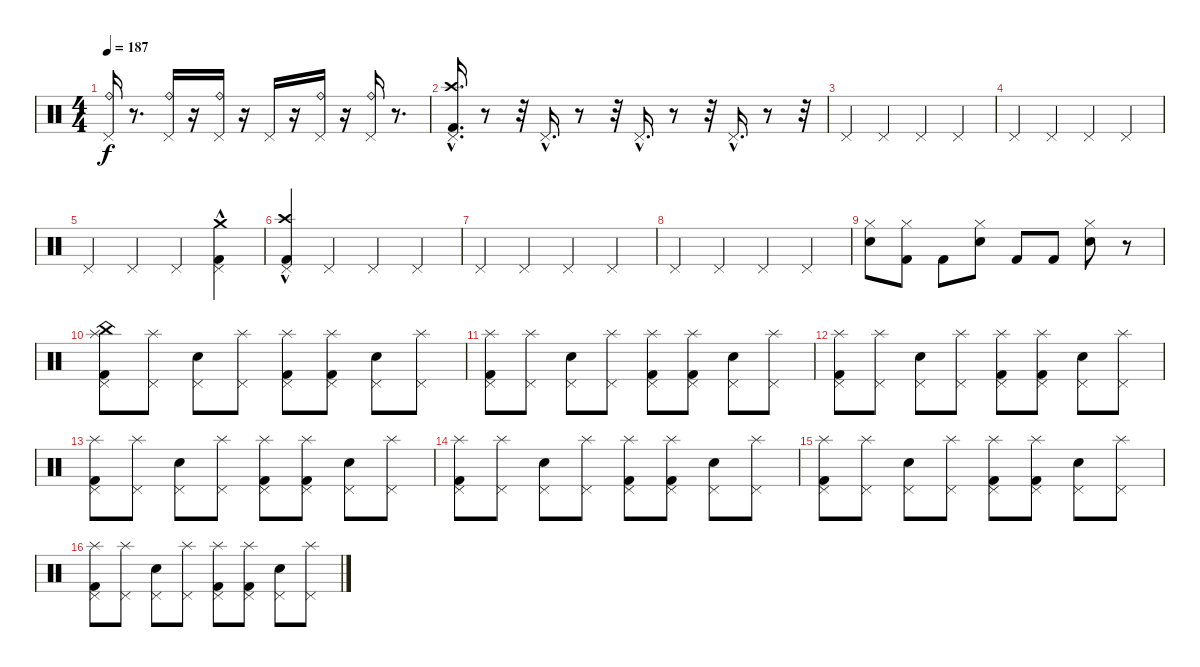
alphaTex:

\track "" {instrument percussion}
\staff {score}
\articulation defaults
\ts (4 4)
\tempo 187
\clef neutral
\ks c
("Pedal Hi-Hat (hit)" "Ride (bell)").16{dy f} r.8{d} ("Pedal Hi-Hat (hit)" "Ride (bell)").16 r.16 ("Pedal Hi-Hat (hit)" "Ride (bell)").16 r.16 "Pedal Hi-Hat (hit)".16 r.16 ("Pedal Hi-Hat (hit)" "Ride (bell)").16 r.16 ("Pedal Hi-Hat (hit)" "Ride (bell)").16 r.8{d} |
("Pedal Hi-Hat (hit)"{hac} "Crash high (hit)"{hac} "Kick (hit) 2"{hac}).16{d} r.8 r.32 "Pedal Hi-Hat (hit)"{hac}.16{d} r.8 r.32 "Pedal Hi-Hat (hit)"{hac}.16{d} r.8 r.32 "Pedal Hi-Hat (hit)"{hac}.16{d} r.8 r.32 |
"Pedal Hi-Hat (hit)".4 "Pedal Hi-Hat (hit)".4 "Pedal Hi-Hat (hit)".4 "Pedal Hi-Hat (hit)".4 |
"Pedal Hi-Hat (hit)".4 "Pedal Hi-Hat (hit)".4 "Pedal Hi-Hat (hit)".4 "Pedal Hi-Hat (hit)".4 |
"Pedal Hi-Hat (hit)".4 "Pedal Hi-Hat (hit)".4 "Pedal Hi-Hat (hit)".4 ("Pedal Hi-Hat (hit)" "Crash medium (hit)"{hac} "Kick (hit) 2"{hac}).4 |
("Pedal Hi-Hat (hit)" "Kick (hit) 2"{hac} "Crash high (hit)"{hac}).4 "Pedal Hi-Hat (hit)".4 "Pedal Hi-Hat (hit)".4 "Pedal Hi-Hat (hit)".4 |
"Pedal Hi-Hat (hit)".4 "Pedal Hi-Hat (hit)".4 "Pedal Hi-Hat (hit)".4 "Pedal Hi-Hat (hit)".4 |
"Pedal Hi-Hat (hit)".4 "Pedal Hi-Hat (hit)".4 "Pedal Hi-Hat (hit)".4 "Pedal Hi-Hat (hit)".4 |
("Hi-Hat (closed)" "Snare (hit) 2").8 ("Hi-Hat (closed)" "Kick (hit) 2").8 "Kick (hit) 2".8 ("Hi-Hat (closed)" "Snare (hit) 2").8 "Kick (hit) 2".8 "Kick (hit) 2".8 ("Hi-Hat (closed)" "Snare (hit) 2").8 r.8 |
("Pedal Hi-Hat (hit)" "Kick (hit) 2" "China (hit)" "Splash (hit)").8 ("Pedal Hi-Hat (hit)" "Splash (hit)").8 ("Pedal Hi-Hat (hit)" "Electric Snare (hit)").8 ("Pedal Hi-Hat (hit)" "Splash (hit)").8 ("Pedal Hi-Hat (hit)" "Kick (hit) 2" "Splash (hit)").8 ("Pedal Hi-Hat (hit)" "Kick (hit) 2" "Splash (hit)").8 ("Pedal Hi-Hat (hit)" "Electric Snare (hit)").8 ("Pedal Hi-Hat (hit)" "Splash (hit)").8 |
("Pedal Hi-Hat (hit)" "Kick (hit) 2" "Splash (hit)").8 ("Pedal Hi-Hat (hit)" "Splash (hit)").8 ("Pedal Hi-Hat (hit)" "Electric Snare (hit)").8 ("Pedal Hi-Hat (hit)" "Splash (hit)").8 ("Pedal Hi-Hat (hit)" "Kick (hit) 2" "Splash (hit)").8 ("Pedal Hi-Hat (hit)" "Kick (hit) 2" "Splash (hit)").8 ("Pedal Hi-Hat (hit)" "Electric Snare (hit)").8 ("Pedal Hi-Hat (hit)" "Splash (hit)").8 |
("Pedal Hi-Hat (hit)" "Kick (hit) 2" "Splash (hit)").8 ("Pedal Hi-Hat (hit)" "Splash (hit)").8 ("Pedal Hi-Hat (hit)" "Electric Snare (hit)").8 ("Pedal Hi-Hat (hit)" "Splash (hit)").8 ("Pedal Hi-Hat (hit)" "Kick (hit) 2" "Splash (hit)").8 ("Pedal Hi-Hat (hit)" "Kick (hit) 2" "Splash (hit)").8 ("Pedal Hi-Hat (hit)" "Electric Snare (hit)").8 ("Pedal Hi-Hat (hit)" "Splash (hit)").8 |
("Pedal Hi-Hat (hit)" "Kick (hit) 2" "Splash (hit)").8 ("Pedal Hi-Hat (hit)" "Splash (hit)").8 ("Pedal Hi-Hat (hit)" "Electric Snare (hit)").8 ("Pedal Hi-Hat (hit)" "Splash (hit)").8 ("Pedal Hi-Hat (hit)" "Kick (hit) 2" "Splash (hit)").8 ("Pedal Hi-Hat (hit)" "Kick (hit) 2" "Splash (hit)").8 ("Pedal Hi-Hat (hit)" "Electric Snare (hit)").8 ("Pedal Hi-Hat (hit)" "Splash (hit)").8 |
("Pedal Hi-Hat (hit)" "Kick (hit) 2" "Splash (hit)").8 ("Pedal Hi-Hat (hit)" "Splash (hit)").8 ("Pedal Hi-Hat (hit)" "Electric Snare (hit)").8 ("Pedal Hi-Hat (hit)" "Splash (hit)").8 ("Pedal Hi-Hat (hit)" "Kick (hit) 2" "Splash (hit)").8 ("Pedal Hi-Hat (hit)" "Kick (hit) 2" "Splash (hit)").8 ("Pedal Hi-Hat (hit)" "Electric Snare (hit)").8 ("Pedal Hi-Hat (hit)" "Splash (hit)").8 |
("Pedal Hi-Hat (hit)" "Kick (hit) 2" "Splash (hit)").8 ("Pedal Hi-Hat (hit)" "Splash (hit)").8 ("Pedal Hi-Hat (hit)" "Electric Snare (hit)").8 ("Pedal Hi-Hat (hit)" "Splash (hit)").8 ("Pedal Hi-Hat (hit)" "Kick (hit) 2" "Splash (hit)").8 ("Pedal Hi-Hat (hit)" "Kick (hit) 2" "Splash (hit)").8 ("Pedal Hi-Hat (hit)" "Electric Snare (hit)").8 ("Pedal Hi-Hat (hit)" "Splash (hit)").8 |
("Pedal Hi-Hat (hit)" "Kick (hit) 2" "Splash (hit)").8 ("Pedal Hi-Hat (hit)" "Splash (hit)").8 ("Pedal Hi-Hat (hit)" "Electric Snare (hit)").8 ("Pedal Hi-Hat (hit)" "Splash (hit)").8 ("Pedal Hi-Hat (hit)" "Kick (hit) 2" "Splash (hit)").8 ("Pedal Hi-Hat (hit)" "Kick (hit) 2" "Splash (hit)").8 ("Pedal Hi-Hat (hit)" "Electric Snare (hit)").8 ("Pedal Hi-Hat (hit)" "Splash (hit)").8
